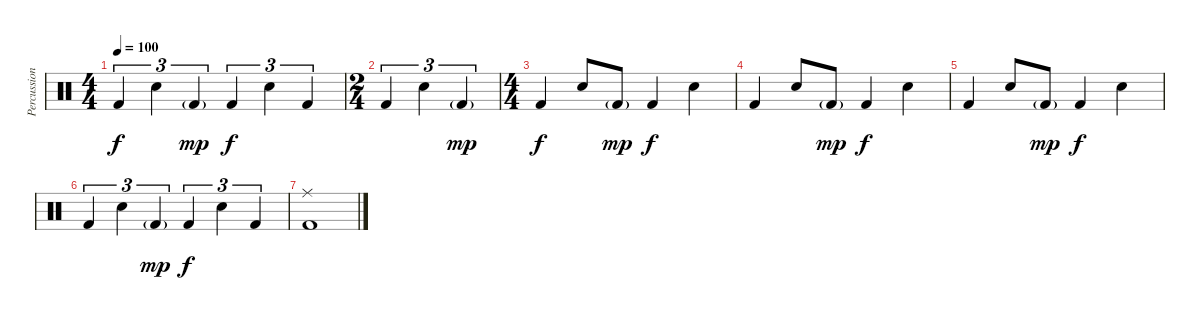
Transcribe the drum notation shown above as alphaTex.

\track ("Percussion" "Percussion") {instrument percussion}
\staff {score}
\articulation defaults
\ts (4 4)
\tempo 100
\clef neutral
\ks c "Kick (hit) 2".4{tu (3 2) dy f} "Snare (hit) 2".4{tu (3 2)} "Kick (hit) 2"{g}.4{tu (3 2) dy mp} "Kick (hit) 2".4{tu (3 2) dy f} "Snare (hit) 2".4{tu (3 2)} "Kick (hit) 2".4{tu (3 2)}
|
\ts (2 4)
"Kick (hit) 2".4{tu (3 2)} "Snare (hit) 2".4{tu (3 2)} "Kick (hit) 2"{g}.4{tu (3 2) dy mp} |
\ts (4 4)
"Kick (hit) 2".4{dy f} "Snare (hit) 2".8 "Kick (hit) 2"{g}.8{dy mp} "Kick (hit) 2".4{dy f} "Snare (hit) 2".4 |
"Kick (hit) 2".4 "Snare (hit) 2".8 "Kick (hit) 2"{g}.8{dy mp} "Kick (hit) 2".4{dy f} "Snare (hit) 2".4 |
"Kick (hit) 2".4 "Snare (hit) 2".8 "Kick (hit) 2"{g}.8{dy mp} "Kick (hit) 2".4{dy f} "Snare (hit) 2".4 |
"Kick (hit) 2".4{tu (3 2)} "Snare (hit) 2".4{tu (3 2)} "Kick (hit) 2"{g}.4{tu (3 2) dy mp} "Kick (hit) 2".4{tu (3 2) dy f} "Snare (hit) 2".4{tu (3 2)} "Kick (hit) 2".4{tu (3 2)} |
("Ride (middle)" "Kick (hit) 2").1
